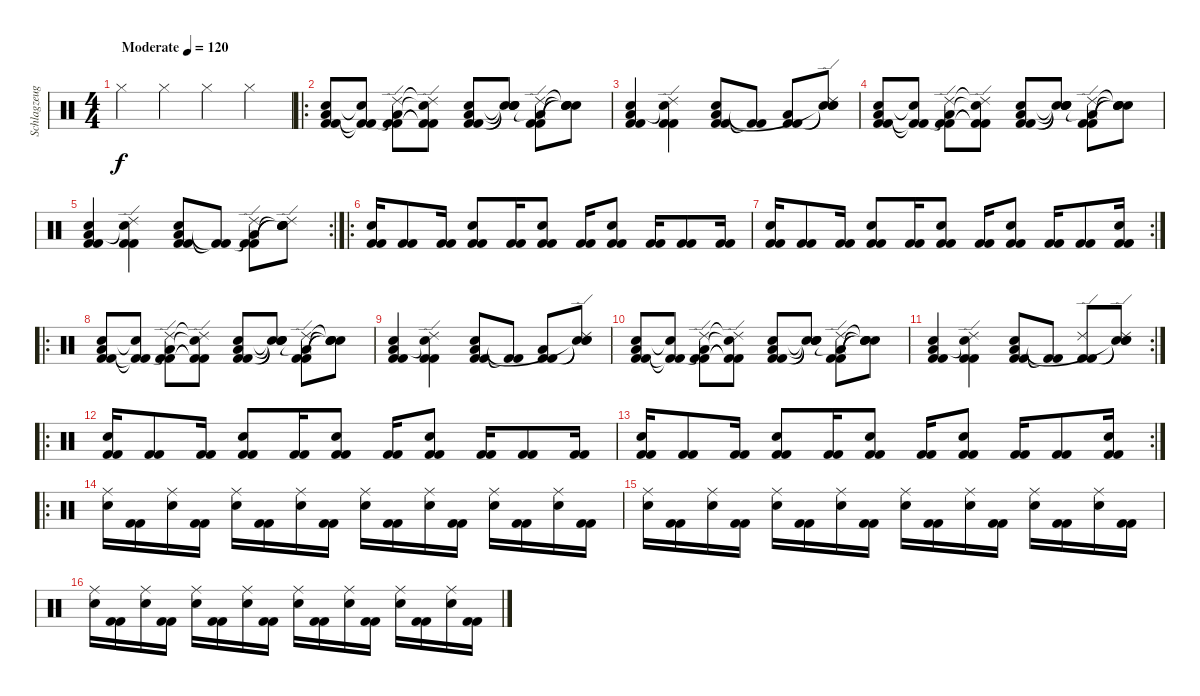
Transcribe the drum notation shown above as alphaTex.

\track ("Schlagzeug" "Schlagzeug") {instrument percussion}
\staff {score}
\articulation defaults
\ts (4 4)
\tempo (120 "Moderate")
\clef neutral
\ks c "Hi-Hat (closed)".4{dy f} "Hi-Hat (closed)".4 "Hi-Hat (closed)".4 "Hi-Hat (closed)".4
|
\ro
("Snare (hit) 2" "Low Floor Tom (hit)" "Kick (hit) 2" "Kick (hit) 2").8 ("Snare (hit)"{t} "Kick (hit) 2"{t} "Kick (hit) 2"{t}).8 ("Ride (edge) 2" "Low Floor Tom (hit)"{t} "Kick (hit) 2" "Kick (hit) 2").8 ("Ride (edge) 2"{t} "Snare (hit)"{t} "Kick (hit) 2"{t} "Kick (hit) 2"{t}).8 ("Snare (hit) 2" "Low Floor Tom (hit)" "Kick (hit) 2" "Kick (hit) 2").8 ("Snare (hit)"{t} "Snare (hit)"{t} "Snare (hit)"{t} "Snare (hit)"{t}).8 ("Ride (edge) 2" "Low Floor Tom (hit)"{t} "Kick (hit) 2" "Kick (hit) 2").8 ("Snare (hit)"{t} "Snare (hit)"{t} "Snare (hit)"{t} "Snare (hit)"{t}).8 |
("Snare (hit) 2" "Low Floor Tom (hit)" "Kick (hit) 2" "Kick (hit) 2").4 ("Ride (edge) 2" "Snare (hit)"{t} "Kick (hit) 2" "Kick (hit) 2").4 ("Snare (hit) 2" "Low Floor Tom (hit)" "Kick (hit) 2" "Kick (hit) 2").8 ("Kick (hit) 2"{t} "Kick (hit) 2"{t}).8 ("Low Floor Tom (hit)" "Kick (hit) 2" "Kick (hit) 2").8 ("Ride (edge) 2" "Snare (hit)"{t} "Snare (hit)"{t} "Snare (hit)"{t}).8 |
("Snare (hit) 2" "Low Floor Tom (hit)" "Kick (hit) 2" "Kick (hit) 2").8 ("Snare (hit)"{t} "Kick (hit) 2"{t} "Kick (hit) 2"{t}).8 ("Ride (edge) 2" "Low Floor Tom (hit)"{t} "Kick (hit) 2" "Kick (hit) 2").8 ("Ride (edge) 2"{t} "Snare (hit)"{t} "Kick (hit) 2"{t} "Kick (hit) 2"{t}).8 ("Snare (hit) 2" "Low Floor Tom (hit)" "Kick (hit) 2" "Kick (hit) 2").8 ("Snare (hit)"{t} "Snare (hit)"{t} "Snare (hit)"{t} "Snare (hit)"{t}).8 ("Ride (edge) 2" "Low Floor Tom (hit)"{t} "Kick (hit) 2" "Kick (hit) 2").8 ("Snare (hit)"{t} "Snare (hit)"{t} "Snare (hit)"{t} "Snare (hit)"{t}).8 |
\rc 2
("Snare (hit) 2" "Low Floor Tom (hit)" "Kick (hit) 2" "Kick (hit) 2").4 ("Ride (edge) 2" "Snare (hit)"{t} "Kick (hit) 2" "Kick (hit) 2").4 ("Snare (hit) 2" "Low Floor Tom (hit)" "Kick (hit) 2" "Kick (hit) 2").8 ("Kick (hit) 2"{t} "Kick (hit) 2"{t}).8 ("Ride (edge) 2" "Low Floor Tom (hit)"{t} "Kick (hit) 2" "Kick (hit) 2").8 ("Ride (edge) 2" "Snare (hit)"{t} "Snare (hit)"{t} "Snare (hit)"{t}).8 |
\ro
("Snare (hit) 2" "Kick (hit) 2" "Kick (hit) 2").16 ("Kick (hit) 2" "Kick (hit) 2").8 ("Kick (hit) 2" "Kick (hit) 2").16 ("Snare (hit) 2" "Kick (hit) 2" "Kick (hit) 2").8 ("Kick (hit) 2" "Kick (hit) 2").16 ("Snare (hit) 2" "Kick (hit) 2" "Kick (hit) 2").8 ("Kick (hit) 2" "Kick (hit) 2").16 ("Snare (hit) 2" "Kick (hit) 2" "Kick (hit) 2").8 ("Kick (hit) 2" "Kick (hit) 2").16 ("Kick (hit) 2" "Kick (hit) 2").8 ("Kick (hit) 2" "Kick (hit) 2").16 |
\rc 2
("Snare (hit) 2" "Kick (hit) 2" "Kick (hit) 2").16 ("Kick (hit) 2" "Kick (hit) 2").8 ("Kick (hit) 2" "Kick (hit) 2").16 ("Snare (hit) 2" "Kick (hit) 2" "Kick (hit) 2").8 ("Kick (hit) 2" "Kick (hit) 2").16 ("Snare (hit) 2" "Kick (hit) 2" "Kick (hit) 2").8 ("Kick (hit) 2" "Kick (hit) 2").16 ("Snare (hit) 2" "Kick (hit) 2" "Kick (hit) 2").8 ("Kick (hit) 2" "Kick (hit) 2").16 ("Kick (hit) 2" "Kick (hit) 2").8 ("Snare (hit) 2" "Kick (hit) 2" "Kick (hit) 2").16 |
\ro
("Snare (hit) 2" "Low Floor Tom (hit)" "Kick (hit) 2" "Kick (hit) 2").8 ("Snare (hit)"{t} "Kick (hit) 2"{t} "Kick (hit) 2"{t}).8 ("Ride (edge) 2" "Low Floor Tom (hit)"{t} "Kick (hit) 2" "Kick (hit) 2").8 ("Ride (edge) 2"{t} "Snare (hit)"{t} "Kick (hit) 2"{t} "Kick (hit) 2"{t}).8 ("Snare (hit) 2" "Low Floor Tom (hit)" "Kick (hit) 2" "Kick (hit) 2").8 ("Snare (hit)"{t} "Snare (hit)"{t} "Snare (hit)"{t} "Snare (hit)"{t}).8 ("Ride (edge) 2" "Low Floor Tom (hit)"{t} "Kick (hit) 2" "Kick (hit) 2").8 ("Snare (hit)"{t} "Snare (hit)"{t} "Snare (hit)"{t} "Snare (hit)"{t}).8 |
("Snare (hit) 2" "Low Floor Tom (hit)" "Kick (hit) 2" "Kick (hit) 2").4 ("Ride (edge) 2" "Snare (hit)"{t} "Kick (hit) 2" "Kick (hit) 2").4 ("Snare (hit) 2" "Low Floor Tom (hit)" "Kick (hit) 2" "Kick (hit) 2").8 ("Kick (hit) 2"{t} "Kick (hit) 2"{t}).8 ("Low Floor Tom (hit)" "Kick (hit) 2" "Kick (hit) 2").8 ("Ride (edge) 2" "Snare (hit)"{t} "Snare (hit)"{t} "Snare (hit)"{t}).8 |
("Snare (hit) 2" "Low Floor Tom (hit)" "Kick (hit) 2" "Kick (hit) 2").8 ("Snare (hit)"{t} "Kick (hit) 2"{t} "Kick (hit) 2"{t}).8 ("Ride (edge) 2" "Low Floor Tom (hit)"{t} "Kick (hit) 2" "Kick (hit) 2").8 ("Ride (edge) 2"{t} "Snare (hit)"{t} "Kick (hit) 2"{t} "Kick (hit) 2"{t}).8 ("Snare (hit) 2" "Low Floor Tom (hit)" "Kick (hit) 2" "Kick (hit) 2").8 ("Snare (hit)"{t} "Snare (hit)"{t} "Snare (hit)"{t} "Snare (hit)"{t}).8 ("Ride (edge) 2" "Low Floor Tom (hit)"{t} "Kick (hit) 2" "Kick (hit) 2").8 ("Snare (hit)"{t} "Snare (hit)"{t} "Snare (hit)"{t} "Snare (hit)"{t}).8 |
\rc 2
("Snare (hit) 2" "Low Floor Tom (hit)" "Kick (hit) 2" "Kick (hit) 2").4 ("Ride (edge) 2" "Snare (hit)"{t} "Kick (hit) 2" "Kick (hit) 2").4 ("Snare (hit) 2" "Low Floor Tom (hit)" "Kick (hit) 2" "Kick (hit) 2").8 ("Kick (hit) 2"{t} "Kick (hit) 2"{t}).8 ("Ride (edge) 2" "Kick (hit) 2" "Kick (hit) 2").8 ("Ride (edge) 2" "Snare (hit)"{t} "Snare (hit)"{t} "Snare (hit)"{t}).8 |
\ro
("Snare (hit) 2" "Kick (hit) 2" "Kick (hit) 2").16 ("Kick (hit) 2" "Kick (hit) 2").8 ("Kick (hit) 2" "Kick (hit) 2").16 ("Snare (hit) 2" "Kick (hit) 2" "Kick (hit) 2").8 ("Kick (hit) 2" "Kick (hit) 2").16 ("Snare (hit) 2" "Kick (hit) 2" "Kick (hit) 2").8 ("Kick (hit) 2" "Kick (hit) 2").16 ("Snare (hit) 2" "Kick (hit) 2" "Kick (hit) 2").8 ("Kick (hit) 2" "Kick (hit) 2").16 ("Kick (hit) 2" "Kick (hit) 2").8 ("Kick (hit) 2" "Kick (hit) 2").16 |
\rc 2
("Snare (hit) 2" "Kick (hit) 2" "Kick (hit) 2").16 ("Kick (hit) 2" "Kick (hit) 2").8 ("Kick (hit) 2" "Kick (hit) 2").16 ("Snare (hit) 2" "Kick (hit) 2" "Kick (hit) 2").8 ("Kick (hit) 2" "Kick (hit) 2").16 ("Snare (hit) 2" "Kick (hit) 2" "Kick (hit) 2").8 ("Kick (hit) 2" "Kick (hit) 2").16 ("Snare (hit) 2" "Kick (hit) 2" "Kick (hit) 2").8 ("Kick (hit) 2" "Kick (hit) 2").16 ("Kick (hit) 2" "Kick (hit) 2").8 ("Snare (hit) 2" "Kick (hit) 2" "Kick (hit) 2").16 |
\ro
("Ride (middle)" "Snare (hit) 2").16 ("Kick (hit) 2" "Kick (hit) 2").16 ("Ride (middle)" "Snare (hit) 2").16 ("Kick (hit) 2" "Kick (hit) 2").16 ("Ride (middle)" "Snare (hit) 2").16 ("Kick (hit) 2" "Kick (hit) 2").16 ("Ride (middle)" "Snare (hit) 2").16 ("Kick (hit) 2" "Kick (hit) 2").16 ("Ride (middle)" "Snare (hit) 2").16 ("Kick (hit) 2" "Kick (hit) 2").16 ("Ride (middle)" "Snare (hit) 2").16 ("Kick (hit) 2" "Kick (hit) 2").16 ("Ride (middle)" "Snare (hit) 2").16 ("Kick (hit) 2" "Kick (hit) 2").16 ("Ride (middle)" "Snare (hit) 2").16 ("Kick (hit) 2" "Kick (hit) 2").16 |
("Ride (middle)" "Snare (hit) 2").16 ("Kick (hit) 2" "Kick (hit) 2").16 ("Ride (middle)" "Snare (hit) 2").16 ("Kick (hit) 2" "Kick (hit) 2").16 ("Ride (middle)" "Snare (hit) 2").16 ("Kick (hit) 2" "Kick (hit) 2").16 ("Ride (middle)" "Snare (hit) 2").16 ("Kick (hit) 2" "Kick (hit) 2").16 ("Ride (middle)" "Snare (hit) 2").16 ("Kick (hit) 2" "Kick (hit) 2").16 ("Ride (middle)" "Snare (hit) 2").16 ("Kick (hit) 2" "Kick (hit) 2").16 ("Ride (middle)" "Snare (hit) 2").16 ("Kick (hit) 2" "Kick (hit) 2").16 ("Ride (middle)" "Snare (hit) 2").16 ("Kick (hit) 2" "Kick (hit) 2").16 |
("Ride (middle)" "Snare (hit) 2").16 ("Kick (hit) 2" "Kick (hit) 2").16 ("Ride (middle)" "Snare (hit) 2").16 ("Kick (hit) 2" "Kick (hit) 2").16 ("Ride (middle)" "Snare (hit) 2").16 ("Kick (hit) 2" "Kick (hit) 2").16 ("Ride (middle)" "Snare (hit) 2").16 ("Kick (hit) 2" "Kick (hit) 2").16 ("Ride (middle)" "Snare (hit) 2").16 ("Kick (hit) 2" "Kick (hit) 2").16 ("Ride (middle)" "Snare (hit) 2").16 ("Kick (hit) 2" "Kick (hit) 2").16 ("Ride (middle)" "Snare (hit) 2").16 ("Kick (hit) 2" "Kick (hit) 2").16 ("Ride (middle)" "Snare (hit) 2").16 ("Kick (hit) 2" "Kick (hit) 2").16
